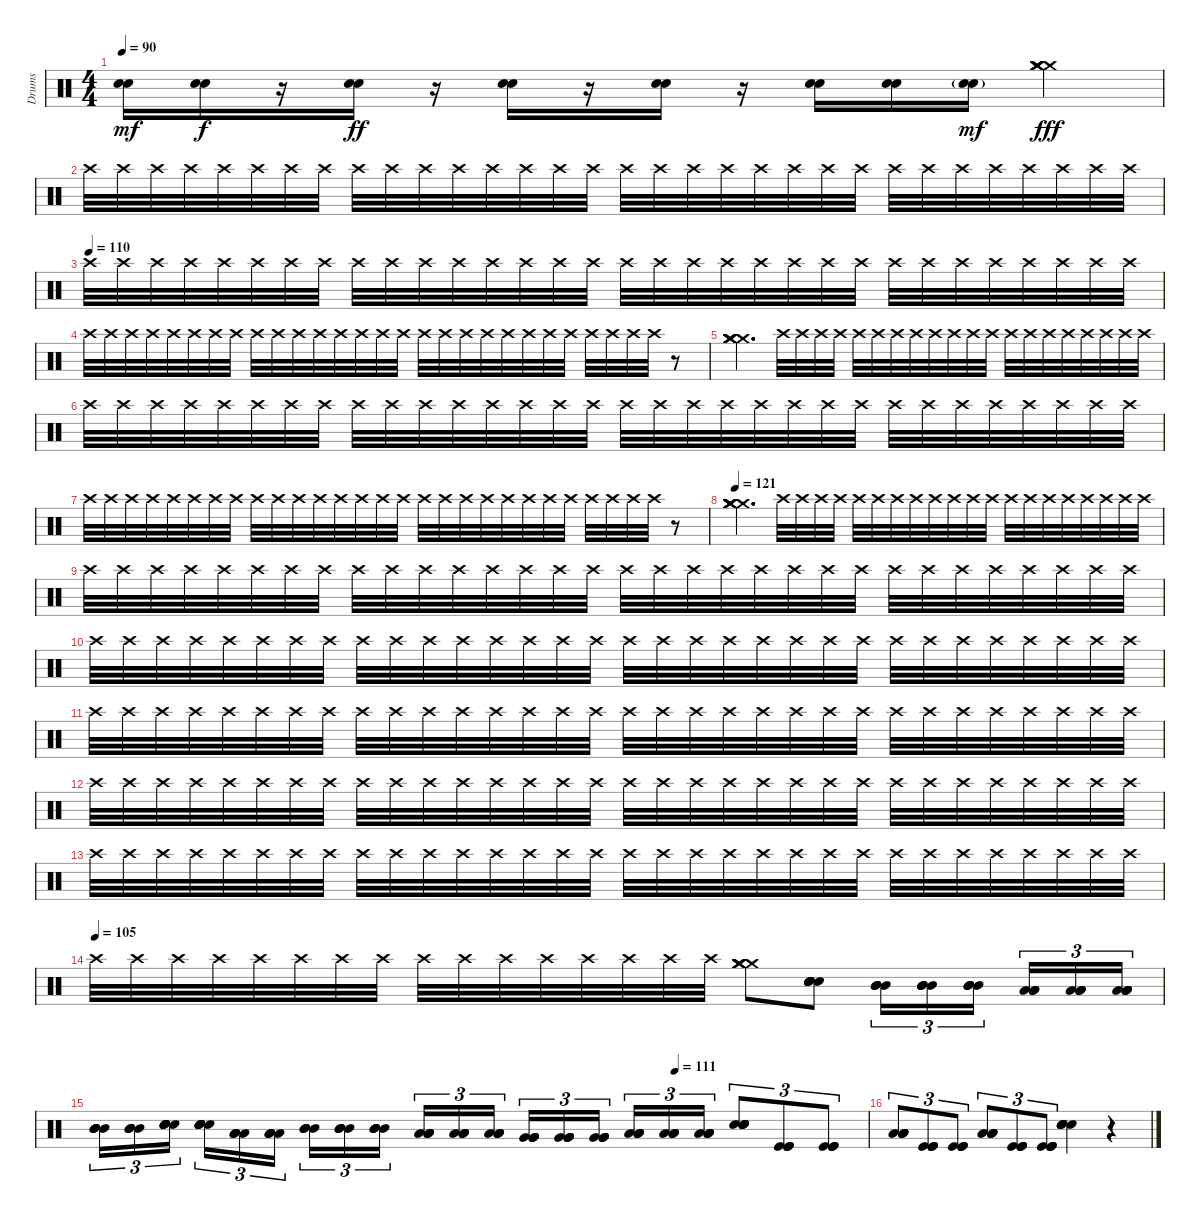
\track ("Drums" "Drums") {instrument percussion}
\staff {score}
\articulation defaults
\ts (4 4)
\tempo 90
\clef neutral
\ks c
("Snare (hit) 2" "Snare (hit) 2").16{dy mf} ("Snare (hit) 2" "Snare (hit) 2").16{dy f} r.16 ("Snare (hit) 2" "Snare (hit) 2").16{dy ff} r.16 ("Snare (hit) 2" "Snare (hit) 2").16 r.16 ("Snare (hit) 2" "Snare (hit) 2").16 r.16 ("Snare (hit) 2" "Snare (hit) 2").16 ("Snare (hit) 2" "Snare (hit) 2").16 ("Snare (hit) 2"{g} "Snare (hit) 2"{g}).16{dy mf} ("Crash medium (hit)" "Crash medium (hit)" "Crash medium (hit)" "Crash medium (hit)" "Crash medium (hit)" "Crash medium (hit)").4{dy fff} |
"Crash high (hit)".32{volume 7} "Crash high (hit)".32{volume 16} "Crash high (hit)".32 "Crash high (hit)".32 "Crash high (hit)".32 "Crash high (hit)".32 "Crash high (hit)".32 "Crash high (hit)".32 "Crash high (hit)".32 "Crash high (hit)".32 "Crash high (hit)".32 "Crash high (hit)".32 "Crash high (hit)".32 "Crash high (hit)".32 "Crash high (hit)".32 "Crash high (hit)".32 "Crash high (hit)".32 "Crash high (hit)".32 "Crash high (hit)".32 "Crash high (hit)".32 "Crash high (hit)".32 "Crash high (hit)".32 "Crash high (hit)".32 "Crash high (hit)".32 "Crash high (hit)".32 "Crash high (hit)".32 "Crash high (hit)".32 "Crash high (hit)".32 "Crash high (hit)".32 "Crash high (hit)".32 "Crash high (hit)".32 "Crash high (hit)".32 |
\tempo (110)
"Crash high (hit)".32 "Crash high (hit)".32 "Crash high (hit)".32 "Crash high (hit)".32 "Crash high (hit)".32 "Crash high (hit)".32 "Crash high (hit)".32 "Crash high (hit)".32 "Crash high (hit)".32 "Crash high (hit)".32 "Crash high (hit)".32 "Crash high (hit)".32 "Crash high (hit)".32 "Crash high (hit)".32 "Crash high (hit)".32 "Crash high (hit)".32 "Crash high (hit)".32 "Crash high (hit)".32 "Crash high (hit)".32 "Crash high (hit)".32 "Crash high (hit)".32 "Crash high (hit)".32 "Crash high (hit)".32 "Crash high (hit)".32 "Crash high (hit)".32 "Crash high (hit)".32 "Crash high (hit)".32 "Crash high (hit)".32 "Crash high (hit)".32 "Crash high (hit)".32 "Crash high (hit)".32 "Crash high (hit)".32 |
"Crash high (hit)".32 "Crash high (hit)".32 "Crash high (hit)".32 "Crash high (hit)".32 "Crash high (hit)".32 "Crash high (hit)".32 "Crash high (hit)".32 "Crash high (hit)".32 "Crash high (hit)".32{volume 5} "Crash high (hit)".32 "Crash high (hit)".32 "Crash high (hit)".32 "Crash high (hit)".32 "Crash high (hit)".32 "Crash high (hit)".32 "Crash high (hit)".32 "Crash high (hit)".32 "Crash high (hit)".32 "Crash high (hit)".32 "Crash high (hit)".32 "Crash high (hit)".32 "Crash high (hit)".32 "Crash high (hit)".32 "Crash high (hit)".32 "Crash high (hit)".32 "Crash high (hit)".32 "Crash high (hit)".32 "Crash high (hit)".32 r.8 |
("Crash medium (hit)" "Crash medium (hit)" "Crash medium (hit)" "Crash medium (hit)" "Crash medium (hit)" "Crash medium (hit)").4{d volume 16} "Crash high (hit)".32{volume 7} "Crash high (hit)".32{volume 7} "Crash high (hit)".32{volume 16} "Crash high (hit)".32 "Crash high (hit)".32 "Crash high (hit)".32 "Crash high (hit)".32 "Crash high (hit)".32 "Crash high (hit)".32 "Crash high (hit)".32 "Crash high (hit)".32 "Crash high (hit)".32 "Crash high (hit)".32 "Crash high (hit)".32 "Crash high (hit)".32 "Crash high (hit)".32 "Crash high (hit)".32 "Crash high (hit)".32 "Crash high (hit)".32 "Crash high (hit)".32 |
"Crash high (hit)".32 "Crash high (hit)".32 "Crash high (hit)".32 "Crash high (hit)".32 "Crash high (hit)".32 "Crash high (hit)".32 "Crash high (hit)".32 "Crash high (hit)".32 "Crash high (hit)".32 "Crash high (hit)".32 "Crash high (hit)".32 "Crash high (hit)".32 "Crash high (hit)".32 "Crash high (hit)".32 "Crash high (hit)".32 "Crash high (hit)".32 "Crash high (hit)".32 "Crash high (hit)".32 "Crash high (hit)".32 "Crash high (hit)".32 "Crash high (hit)".32 "Crash high (hit)".32 "Crash high (hit)".32 "Crash high (hit)".32 "Crash high (hit)".32 "Crash high (hit)".32 "Crash high (hit)".32 "Crash high (hit)".32 "Crash high (hit)".32 "Crash high (hit)".32 "Crash high (hit)".32 "Crash high (hit)".32 |
"Crash high (hit)".32 "Crash high (hit)".32 "Crash high (hit)".32 "Crash high (hit)".32 "Crash high (hit)".32 "Crash high (hit)".32 "Crash high (hit)".32 "Crash high (hit)".32 "Crash high (hit)".32{volume 5} "Crash high (hit)".32 "Crash high (hit)".32 "Crash high (hit)".32 "Crash high (hit)".32 "Crash high (hit)".32 "Crash high (hit)".32 "Crash high (hit)".32 "Crash high (hit)".32 "Crash high (hit)".32 "Crash high (hit)".32 "Crash high (hit)".32 "Crash high (hit)".32 "Crash high (hit)".32 "Crash high (hit)".32 "Crash high (hit)".32 "Crash high (hit)".32 "Crash high (hit)".32 "Crash high (hit)".32 "Crash high (hit)".32 r.8 |
\tempo 121
("Crash medium (hit)" "Crash medium (hit)" "Crash medium (hit)" "Crash medium (hit)" "Crash medium (hit)" "Crash medium (hit)").4{d} "Crash high (hit)".32{volume 7} "Crash high (hit)".32{volume 16} "Crash high (hit)".32 "Crash high (hit)".32 "Crash high (hit)".32 "Crash high (hit)".32 "Crash high (hit)".32 "Crash high (hit)".32 "Crash high (hit)".32 "Crash high (hit)".32 "Crash high (hit)".32 "Crash high (hit)".32 "Crash high (hit)".32 "Crash high (hit)".32 "Crash high (hit)".32 "Crash high (hit)".32 "Crash high (hit)".32 "Crash high (hit)".32 "Crash high (hit)".32 "Crash high (hit)".32 |
"Crash high (hit)".32 "Crash high (hit)".32 "Crash high (hit)".32 "Crash high (hit)".32 "Crash high (hit)".32 "Crash high (hit)".32 "Crash high (hit)".32 "Crash high (hit)".32 "Crash high (hit)".32 "Crash high (hit)".32 "Crash high (hit)".32 "Crash high (hit)".32 "Crash high (hit)".32 "Crash high (hit)".32 "Crash high (hit)".32 "Crash high (hit)".32 "Crash high (hit)".32 "Crash high (hit)".32 "Crash high (hit)".32 "Crash high (hit)".32 "Crash high (hit)".32 "Crash high (hit)".32 "Crash high (hit)".32 "Crash high (hit)".32 "Crash high (hit)".32 "Crash high (hit)".32 "Crash high (hit)".32 "Crash high (hit)".32 "Crash high (hit)".32 "Crash high (hit)".32 "Crash high (hit)".32 "Crash high (hit)".32 |
"Crash high (hit)".32 "Crash high (hit)".32 "Crash high (hit)".32 "Crash high (hit)".32 "Crash high (hit)".32 "Crash high (hit)".32 "Crash high (hit)".32 "Crash high (hit)".32 "Crash high (hit)".32 "Crash high (hit)".32 "Crash high (hit)".32 "Crash high (hit)".32 "Crash high (hit)".32 "Crash high (hit)".32 "Crash high (hit)".32 "Crash high (hit)".32 "Crash high (hit)".32 "Crash high (hit)".32 "Crash high (hit)".32 "Crash high (hit)".32 "Crash high (hit)".32 "Crash high (hit)".32 "Crash high (hit)".32 "Crash high (hit)".32 "Crash high (hit)".32 "Crash high (hit)".32 "Crash high (hit)".32 "Crash high (hit)".32 "Crash high (hit)".32 "Crash high (hit)".32 "Crash high (hit)".32 "Crash high (hit)".32 |
"Crash high (hit)".32 "Crash high (hit)".32 "Crash high (hit)".32 "Crash high (hit)".32 "Crash high (hit)".32 "Crash high (hit)".32 "Crash high (hit)".32 "Crash high (hit)".32 "Crash high (hit)".32 "Crash high (hit)".32 "Crash high (hit)".32 "Crash high (hit)".32 "Crash high (hit)".32 "Crash high (hit)".32 "Crash high (hit)".32 "Crash high (hit)".32 "Crash high (hit)".32 "Crash high (hit)".32 "Crash high (hit)".32 "Crash high (hit)".32 "Crash high (hit)".32 "Crash high (hit)".32 "Crash high (hit)".32 "Crash high (hit)".32 "Crash high (hit)".32 "Crash high (hit)".32 "Crash high (hit)".32 "Crash high (hit)".32 "Crash high (hit)".32 "Crash high (hit)".32 "Crash high (hit)".32 "Crash high (hit)".32 |
"Crash high (hit)".32 "Crash high (hit)".32 "Crash high (hit)".32 "Crash high (hit)".32 "Crash high (hit)".32 "Crash high (hit)".32 "Crash high (hit)".32 "Crash high (hit)".32 "Crash high (hit)".32 "Crash high (hit)".32 "Crash high (hit)".32 "Crash high (hit)".32 "Crash high (hit)".32 "Crash high (hit)".32 "Crash high (hit)".32 "Crash high (hit)".32 "Crash high (hit)".32 "Crash high (hit)".32 "Crash high (hit)".32 "Crash high (hit)".32 "Crash high (hit)".32 "Crash high (hit)".32 "Crash high (hit)".32 "Crash high (hit)".32 "Crash high (hit)".32 "Crash high (hit)".32 "Crash high (hit)".32 "Crash high (hit)".32 "Crash high (hit)".32 "Crash high (hit)".32 "Crash high (hit)".32 "Crash high (hit)".32 |
"Crash high (hit)".32 "Crash high (hit)".32 "Crash high (hit)".32 "Crash high (hit)".32 "Crash high (hit)".32 "Crash high (hit)".32 "Crash high (hit)".32 "Crash high (hit)".32 "Crash high (hit)".32 "Crash high (hit)".32 "Crash high (hit)".32 "Crash high (hit)".32 "Crash high (hit)".32 "Crash high (hit)".32 "Crash high (hit)".32 "Crash high (hit)".32 "Crash high (hit)".32{volume 7} "Crash high (hit)".32 "Crash high (hit)".32 "Crash high (hit)".32 "Crash high (hit)".32 "Crash high (hit)".32 "Crash high (hit)".32 "Crash high (hit)".32 "Crash high (hit)".32 "Crash high (hit)".32 "Crash high (hit)".32 "Crash high (hit)".32 "Crash high (hit)".32 "Crash high (hit)".32 "Crash high (hit)".32 "Crash high (hit)".32 |
\tempo (105)
"Crash high (hit)".32 "Crash high (hit)".32 "Crash high (hit)".32 "Crash high (hit)".32 "Crash high (hit)".32 "Crash high (hit)".32 "Crash high (hit)".32 "Crash high (hit)".32 "Crash high (hit)".32 "Crash high (hit)".32 "Crash high (hit)".32 "Crash high (hit)".32 "Crash high (hit)".32 "Crash high (hit)".32 "Crash high (hit)".32 "Crash high (hit)".32 ("Crash medium (hit)" "Crash medium (hit)" "Crash medium (hit)" "Crash medium (hit)" "Crash medium (hit)" "Crash medium (hit)").8{volume 16} ("Snare (hit) 2" "Snare (hit) 2" "Snare (hit) 2" "Snare (hit) 2" "Snare (hit) 2" "Snare (hit) 2").8 ("Mid Tom (hit)" "Mid Tom (hit)" "Mid Tom (hit)" "Mid Tom (hit)").16{tu (3 2)} ("Mid Tom (hit)" "Mid Tom (hit)" "Mid Tom (hit)" "Mid Tom (hit)").16{tu (3 2)} ("Mid Tom (hit)" "Mid Tom (hit)" "Mid Tom (hit)" "Mid Tom (hit)").16{tu (3 2) beam splitsecondary} ("Low Tom (hit)" "Low Tom (hit)" "Low Tom (hit)" "Low Tom (hit)").16{tu (3 2)} ("Low Tom (hit)" "Low Tom (hit)" "Low Tom (hit)" "Low Tom (hit)").16{tu (3 2)} ("Low Tom (hit)" "Low Tom (hit)" "Low Tom (hit)" "Low Tom (hit)").16{tu (3 2)} |
\tempo (111 0.75)
("Mid Tom (hit)" "Mid Tom (hit)" "Mid Tom (hit)" "Mid Tom (hit)").16{tu (3 2)} ("Mid Tom (hit)" "Mid Tom (hit)" "Mid Tom (hit)" "Mid Tom (hit)").16{tu (3 2)} ("Snare (hit) 2" "Snare (hit) 2" "Snare (hit) 2" "Snare (hit) 2" "Snare (hit) 2" "Snare (hit) 2").16{tu (3 2) beam splitsecondary} ("Snare (hit) 2" "Snare (hit) 2" "Snare (hit) 2" "Snare (hit) 2" "Snare (hit) 2" "Snare (hit) 2").16{tu (3 2)} ("Low Tom (hit)" "Low Tom (hit)" "Low Tom (hit)" "Low Tom (hit)").16{tu (3 2)} ("Low Tom (hit)" "Low Tom (hit)" "Low Tom (hit)" "Low Tom (hit)").16{tu (3 2)} ("Mid Tom (hit)" "Mid Tom (hit)" "Mid Tom (hit)" "Mid Tom (hit)").16{tu (3 2)} ("Mid Tom (hit)" "Mid Tom (hit)" "Mid Tom (hit)" "Mid Tom (hit)").16{tu (3 2)} ("Mid Tom (hit)" "Mid Tom (hit)" "Mid Tom (hit)" "Mid Tom (hit)").16{tu (3 2) beam splitsecondary} ("Low Tom (hit)" "Low Tom (hit)" "Low Tom (hit)" "Low Tom (hit)").16{tu (3 2)} ("Low Tom (hit)" "Low Tom (hit)" "Low Tom (hit)" "Low Tom (hit)").16{tu (3 2)} ("Low Tom (hit)" "Low Tom (hit)" "Low Tom (hit)" "Low Tom (hit)").16{tu (3 2)} ("Very Low Tom (hit)" "Very Low Tom (hit)" "Very Low Tom (hit)" "Very Low Tom (hit)").16{tu (3 2)} ("Very Low Tom (hit)" "Very Low Tom (hit)" "Very Low Tom (hit)" "Very Low Tom (hit)").16{tu (3 2)} ("Very Low Tom (hit)" "Very Low Tom (hit)" "Very Low Tom (hit)" "Very Low Tom (hit)").16{tu (3 2) beam splitsecondary} ("Low Floor Tom (hit)" "Low Floor Tom (hit)" "Low Floor Tom (hit)" "Low Floor Tom (hit)").16{tu (3 2)} ("Low Floor Tom (hit)" "Low Floor Tom (hit)" "Low Floor Tom (hit)" "Low Floor Tom (hit)").16{tu (3 2)} ("Low Floor Tom (hit)" "Low Floor Tom (hit)" "Low Floor Tom (hit)" "Low Floor Tom (hit)").16{tu (3 2)} ("Snare (hit) 2" "Snare (hit) 2" "Snare (hit) 2" "Snare (hit) 2" "Snare (hit) 2" "Snare (hit) 2").8{tu (3 2)} ("Kick (hit)" "Kick (hit)" "Kick (hit)" "Kick (hit)").8{tu (3 2)} ("Kick (hit)" "Kick (hit)" "Kick (hit)" "Kick (hit)").8{tu (3 2)} |
("Low Floor Tom (hit)" "Low Floor Tom (hit)" "Low Floor Tom (hit)" "Low Floor Tom (hit)").8{tu (3 2)} ("Kick (hit)" "Kick (hit)" "Kick (hit)" "Kick (hit)").8{tu (3 2)} ("Kick (hit)" "Kick (hit)" "Kick (hit)" "Kick (hit)").8{tu (3 2)} ("Low Floor Tom (hit)" "Low Floor Tom (hit)" "Low Floor Tom (hit)" "Low Floor Tom (hit)").8{tu (3 2)} ("Kick (hit)" "Kick (hit)" "Kick (hit)" "Kick (hit)").8{tu (3 2)} ("Kick (hit)" "Kick (hit)" "Kick (hit)" "Kick (hit)").8{tu (3 2)} ("Snare (hit) 2" "Snare (hit) 2" "Snare (hit) 2" "Snare (hit) 2" "Snare (hit) 2" "Snare (hit) 2").4 r.4
